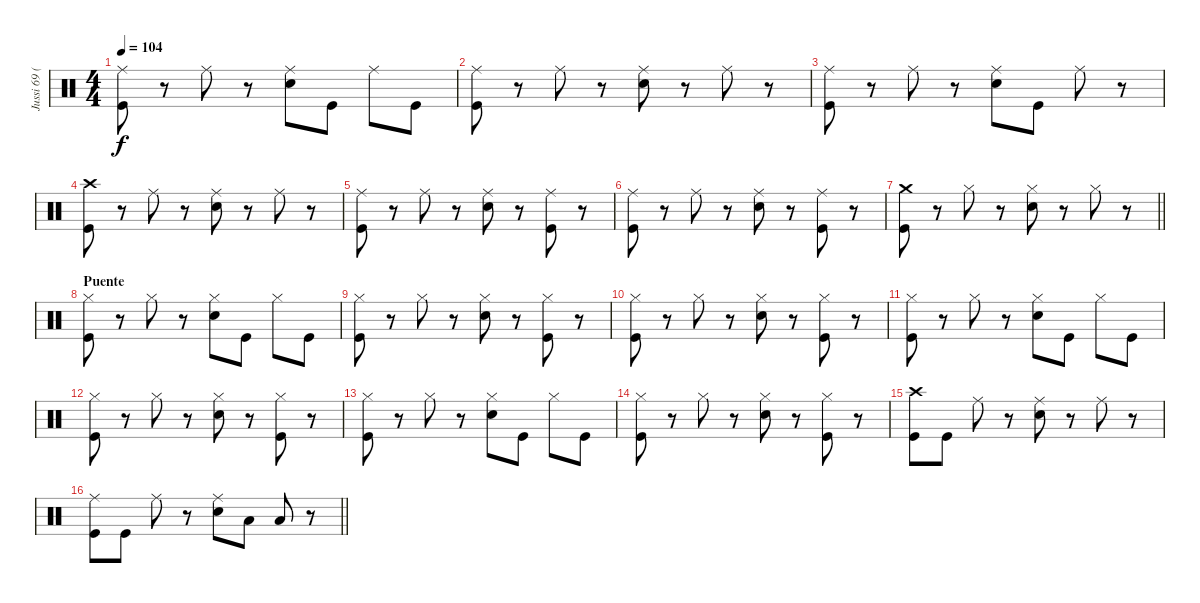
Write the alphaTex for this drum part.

\track ("Jussi 69 (Batería)" "Jussi 69 (") {instrument percussion}
\staff {score}
\articulation defaults
\ts (4 4)
\tempo 104
\clef neutral
\ks c
("Ride (middle)" "Kick (hit)").8{dy f} r.8 "Ride (middle)".8 r.8 ("Ride (middle)" "Electric Snare (hit)").8 "Kick (hit)".8 "Ride (middle)".8 "Kick (hit)".8 |
("Ride (middle)" "Kick (hit)").8 r.8 "Ride (middle)".8 r.8 ("Ride (middle)" "Electric Snare (hit)").8 r.8 "Ride (middle)".8 r.8 |
("Ride (middle)" "Kick (hit)").8 r.8 "Ride (middle)".8 r.8 ("Ride (middle)" "Electric Snare (hit)").8 "Kick (hit)".8 "Ride (middle)".8 r.8 |
("Crash high (hit)" "Kick (hit)").8 r.8 "Ride (middle)".8 r.8 ("Ride (middle)" "Electric Snare (hit)").8 r.8 "Ride (middle)".8 r.8 |
("Ride (middle)" "Kick (hit)").8 r.8 "Ride (middle)".8 r.8 ("Ride (middle)" "Electric Snare (hit)").8 r.8 ("Ride (middle)" "Kick (hit)").8 r.8 |
("Ride (middle)" "Kick (hit)").8 r.8 "Ride (middle)".8 r.8 ("Ride (middle)" "Electric Snare (hit)").8 r.8 ("Ride (middle)" "Kick (hit)").8 r.8 |
\barLineRight lightlight
("Crash medium (hit)" "Kick (hit)").8 r.8 "Hi-Hat (closed)".8 r.8 ("Hi-Hat (closed)" "Electric Snare (hit)").8 r.8 "Hi-Hat (closed)".8 r.8 |
\section ("" "Puente")
("Hi-Hat (closed)" "Kick (hit)").8 r.8 "Hi-Hat (closed)".8 r.8 ("Hi-Hat (closed)" "Electric Snare (hit)").8 "Kick (hit)".8 "Hi-Hat (closed)".8 "Kick (hit)".8 |
("Hi-Hat (closed)" "Kick (hit)").8 r.8 "Hi-Hat (closed)".8 r.8 ("Hi-Hat (closed)" "Electric Snare (hit)").8 r.8 ("Hi-Hat (closed)" "Kick (hit)").8 r.8 |
("Hi-Hat (closed)" "Kick (hit)").8 r.8 "Hi-Hat (closed)".8 r.8 ("Hi-Hat (closed)" "Electric Snare (hit)").8 r.8 ("Hi-Hat (closed)" "Kick (hit)").8 r.8 |
("Hi-Hat (closed)" "Kick (hit)").8 r.8 "Hi-Hat (closed)".8 r.8 ("Hi-Hat (closed)" "Electric Snare (hit)").8 "Kick (hit)".8 "Hi-Hat (closed)".8 "Kick (hit)".8 |
("Hi-Hat (closed)" "Kick (hit)").8 r.8 "Hi-Hat (closed)".8 r.8 ("Hi-Hat (closed)" "Electric Snare (hit)").8 r.8 ("Hi-Hat (closed)" "Kick (hit)").8 r.8 |
("Hi-Hat (closed)" "Kick (hit)").8 r.8 "Hi-Hat (closed)".8 r.8 ("Hi-Hat (closed)" "Electric Snare (hit)").8 "Kick (hit)".8 "Hi-Hat (closed)".8 "Kick (hit)".8 |
("Hi-Hat (closed)" "Kick (hit)").8 r.8 "Hi-Hat (closed)".8 r.8 ("Hi-Hat (closed)" "Electric Snare (hit)").8 r.8 ("Hi-Hat (closed)" "Kick (hit)").8 r.8 |
("Crash high (hit)" "Kick (hit)").8 "Kick (hit)".8 "Ride (middle)".8 r.8 ("Ride (middle)" "Electric Snare (hit)").8 r.8 "Ride (middle)".8 r.8 |
\barLineRight lightlight
("Ride (middle)" "Kick (hit)").8 "Kick (hit)".8 "Ride (middle)".8 r.8 ("Ride (middle)" "Electric Snare (hit)").8 "Low Tom (hit)".8 "Low Tom (hit)".8 r.8
